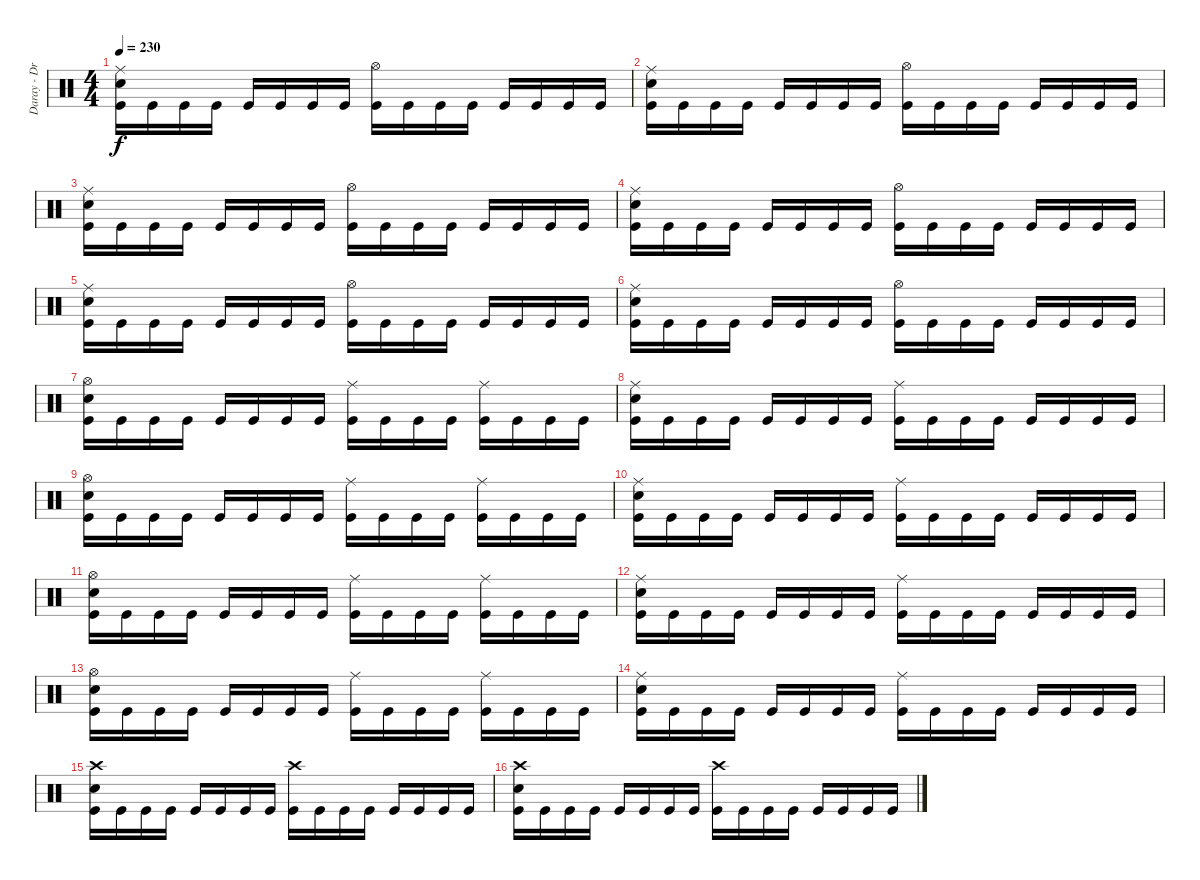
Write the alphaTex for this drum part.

\track ("Daray - Drums" "Daray - Dr") {instrument percussion}
\staff {score}
\articulation defaults
\ts (4 4)
\tempo 230
\clef neutral
\ks c
("Ride (middle)" "Electric Snare (hit)" "Kick (hit)").16{dy f} "Kick (hit)".16 "Kick (hit)".16 "Kick (hit)".16 "Kick (hit)".16 "Kick (hit)".16 "Kick (hit)".16 "Kick (hit)".16 ("Hi-Hat (open)" "Kick (hit)").16 "Kick (hit)".16 "Kick (hit)".16 "Kick (hit)".16 "Kick (hit)".16 "Kick (hit)".16 "Kick (hit)".16 "Kick (hit)".16 |
("Ride (middle)" "Electric Snare (hit)" "Kick (hit)").16 "Kick (hit)".16 "Kick (hit)".16 "Kick (hit)".16 "Kick (hit)".16 "Kick (hit)".16 "Kick (hit)".16 "Kick (hit)".16 ("Hi-Hat (open)" "Kick (hit)").16 "Kick (hit)".16 "Kick (hit)".16 "Kick (hit)".16 "Kick (hit)".16 "Kick (hit)".16 "Kick (hit)".16 "Kick (hit)".16 |
("Ride (middle)" "Electric Snare (hit)" "Kick (hit)").16 "Kick (hit)".16 "Kick (hit)".16 "Kick (hit)".16 "Kick (hit)".16 "Kick (hit)".16 "Kick (hit)".16 "Kick (hit)".16 ("Hi-Hat (open)" "Kick (hit)").16 "Kick (hit)".16 "Kick (hit)".16 "Kick (hit)".16 "Kick (hit)".16 "Kick (hit)".16 "Kick (hit)".16 "Kick (hit)".16 |
("Ride (middle)" "Electric Snare (hit)" "Kick (hit)").16 "Kick (hit)".16 "Kick (hit)".16 "Kick (hit)".16 "Kick (hit)".16 "Kick (hit)".16 "Kick (hit)".16 "Kick (hit)".16 ("Hi-Hat (open)" "Kick (hit)").16 "Kick (hit)".16 "Kick (hit)".16 "Kick (hit)".16 "Kick (hit)".16 "Kick (hit)".16 "Kick (hit)".16 "Kick (hit)".16 |
("Ride (middle)" "Electric Snare (hit)" "Kick (hit)").16 "Kick (hit)".16 "Kick (hit)".16 "Kick (hit)".16 "Kick (hit)".16 "Kick (hit)".16 "Kick (hit)".16 "Kick (hit)".16 ("Hi-Hat (open)" "Kick (hit)").16 "Kick (hit)".16 "Kick (hit)".16 "Kick (hit)".16 "Kick (hit)".16 "Kick (hit)".16 "Kick (hit)".16 "Kick (hit)".16 |
("Ride (middle)" "Electric Snare (hit)" "Kick (hit)").16 "Kick (hit)".16 "Kick (hit)".16 "Kick (hit)".16 "Kick (hit)".16 "Kick (hit)".16 "Kick (hit)".16 "Kick (hit)".16 ("Hi-Hat (open)" "Kick (hit)").16 "Kick (hit)".16 "Kick (hit)".16 "Kick (hit)".16 "Kick (hit)".16 "Kick (hit)".16 "Kick (hit)".16 "Kick (hit)".16 |
("Hi-Hat (open)" "Electric Snare (hit)" "Kick (hit)").16 "Kick (hit)".16 "Kick (hit)".16 "Kick (hit)".16 "Kick (hit)".16 "Kick (hit)".16 "Kick (hit)".16 "Kick (hit)".16 ("Ride (middle)" "Kick (hit)").16 "Kick (hit)".16 "Kick (hit)".16 "Kick (hit)".16 ("Ride (middle)" "Kick (hit)").16 "Kick (hit)".16 "Kick (hit)".16 "Kick (hit)".16 |
("Ride (middle)" "Electric Snare (hit)" "Kick (hit)").16 "Kick (hit)".16 "Kick (hit)".16 "Kick (hit)".16 "Kick (hit)".16 "Kick (hit)".16 "Kick (hit)".16 "Kick (hit)".16 ("Ride (middle)" "Kick (hit)").16 "Kick (hit)".16 "Kick (hit)".16 "Kick (hit)".16 "Kick (hit)".16 "Kick (hit)".16 "Kick (hit)".16 "Kick (hit)".16 |
("Hi-Hat (open)" "Electric Snare (hit)" "Kick (hit)").16 "Kick (hit)".16 "Kick (hit)".16 "Kick (hit)".16 "Kick (hit)".16 "Kick (hit)".16 "Kick (hit)".16 "Kick (hit)".16 ("Ride (middle)" "Kick (hit)").16 "Kick (hit)".16 "Kick (hit)".16 "Kick (hit)".16 ("Ride (middle)" "Kick (hit)").16 "Kick (hit)".16 "Kick (hit)".16 "Kick (hit)".16 |
("Ride (middle)" "Electric Snare (hit)" "Kick (hit)").16 "Kick (hit)".16 "Kick (hit)".16 "Kick (hit)".16 "Kick (hit)".16 "Kick (hit)".16 "Kick (hit)".16 "Kick (hit)".16 ("Ride (middle)" "Kick (hit)").16 "Kick (hit)".16 "Kick (hit)".16 "Kick (hit)".16 "Kick (hit)".16 "Kick (hit)".16 "Kick (hit)".16 "Kick (hit)".16 |
("Hi-Hat (open)" "Electric Snare (hit)" "Kick (hit)").16 "Kick (hit)".16 "Kick (hit)".16 "Kick (hit)".16 "Kick (hit)".16 "Kick (hit)".16 "Kick (hit)".16 "Kick (hit)".16 ("Ride (middle)" "Kick (hit)").16 "Kick (hit)".16 "Kick (hit)".16 "Kick (hit)".16 ("Ride (middle)" "Kick (hit)").16 "Kick (hit)".16 "Kick (hit)".16 "Kick (hit)".16 |
("Ride (middle)" "Electric Snare (hit)" "Kick (hit)").16 "Kick (hit)".16 "Kick (hit)".16 "Kick (hit)".16 "Kick (hit)".16 "Kick (hit)".16 "Kick (hit)".16 "Kick (hit)".16 ("Ride (middle)" "Kick (hit)").16 "Kick (hit)".16 "Kick (hit)".16 "Kick (hit)".16 "Kick (hit)".16 "Kick (hit)".16 "Kick (hit)".16 "Kick (hit)".16 |
("Hi-Hat (open)" "Electric Snare (hit)" "Kick (hit)").16 "Kick (hit)".16 "Kick (hit)".16 "Kick (hit)".16 "Kick (hit)".16 "Kick (hit)".16 "Kick (hit)".16 "Kick (hit)".16 ("Ride (middle)" "Kick (hit)").16 "Kick (hit)".16 "Kick (hit)".16 "Kick (hit)".16 ("Ride (middle)" "Kick (hit)").16 "Kick (hit)".16 "Kick (hit)".16 "Kick (hit)".16 |
("Ride (middle)" "Electric Snare (hit)" "Kick (hit)").16 "Kick (hit)".16 "Kick (hit)".16 "Kick (hit)".16 "Kick (hit)".16 "Kick (hit)".16 "Kick (hit)".16 "Kick (hit)".16 ("Ride (middle)" "Kick (hit)").16 "Kick (hit)".16 "Kick (hit)".16 "Kick (hit)".16 "Kick (hit)".16 "Kick (hit)".16 "Kick (hit)".16 "Kick (hit)".16 |
("Crash high (hit)" "Electric Snare (hit)" "Kick (hit)").16 "Kick (hit)".16 "Kick (hit)".16 "Kick (hit)".16 "Kick (hit)".16 "Kick (hit)".16 "Kick (hit)".16 "Kick (hit)".16 ("Crash high (hit)" "Kick (hit)").16 "Kick (hit)".16 "Kick (hit)".16 "Kick (hit)".16 "Kick (hit)".16 "Kick (hit)".16 "Kick (hit)".16 "Kick (hit)".16 |
("Crash high (hit)" "Electric Snare (hit)" "Kick (hit)").16 "Kick (hit)".16 "Kick (hit)".16 "Kick (hit)".16 "Kick (hit)".16 "Kick (hit)".16 "Kick (hit)".16 "Kick (hit)".16 ("Crash high (hit)" "Kick (hit)").16 "Kick (hit)".16 "Kick (hit)".16 "Kick (hit)".16 "Kick (hit)".16 "Kick (hit)".16 "Kick (hit)".16 "Kick (hit)".16
